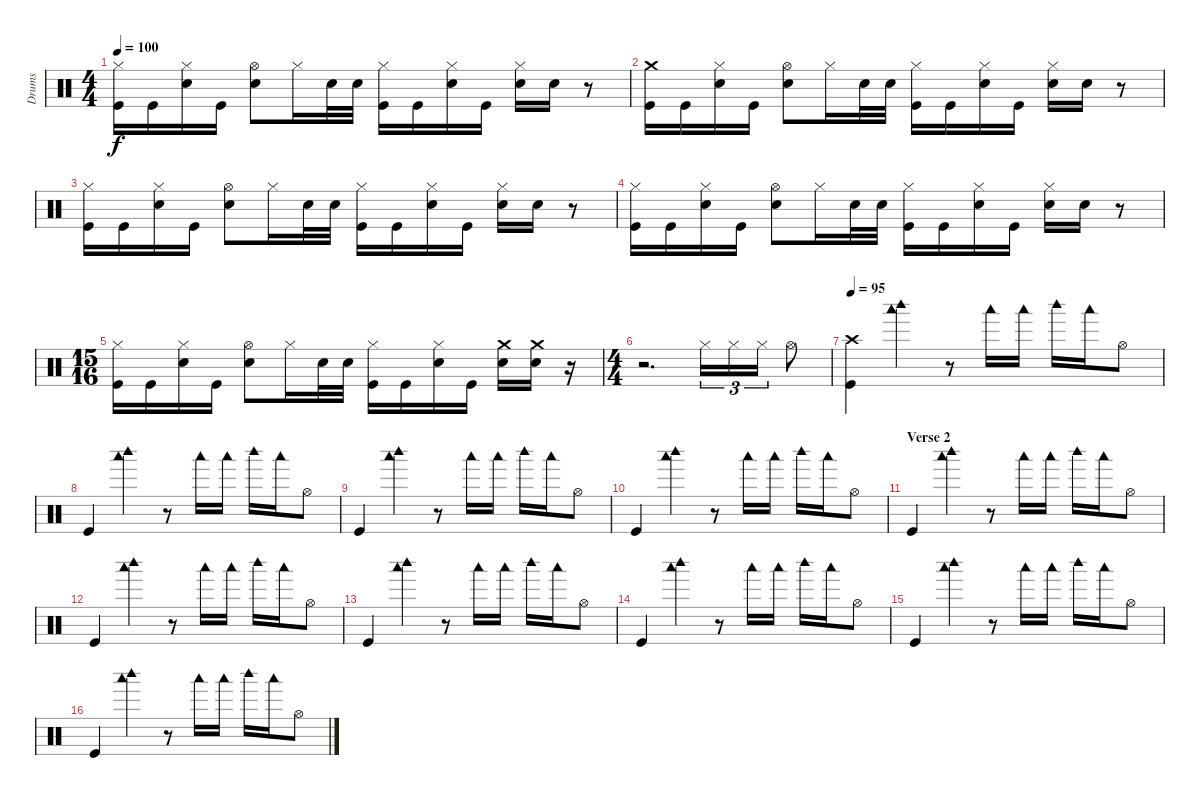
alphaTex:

\track ("Drums" "Drums") {instrument percussion}
\staff {score}
\articulation defaults
\ts (4 4)
\tempo 100
\clef neutral
\ks c
("Hi-Hat (closed)" "Kick (hit)").16{dy f} "Kick (hit)".16 ("Hi-Hat (closed)" "Electric Snare (hit)").16 "Kick (hit)".16 ("Hi-Hat (open)" "Electric Snare (hit)").8 "Hi-Hat (closed)".16 "Electric Snare (hit)".32 "Electric Snare (hit)".32 ("Hi-Hat (closed)" "Kick (hit)").16 "Kick (hit)".16 ("Hi-Hat (closed)" "Electric Snare (hit)").16 "Kick (hit)".16 ("Hi-Hat (closed)" "Electric Snare (hit)").16 "Electric Snare (hit)".16 r.8 |
("Crash medium (hit)" "Kick (hit)").16 "Kick (hit)".16 ("Hi-Hat (closed)" "Electric Snare (hit)").16 "Kick (hit)".16 ("Hi-Hat (open)" "Electric Snare (hit)").8 "Hi-Hat (closed)".16 "Electric Snare (hit)".32 "Electric Snare (hit)".32 ("Hi-Hat (closed)" "Kick (hit)").16 "Kick (hit)".16 ("Hi-Hat (closed)" "Electric Snare (hit)").16 "Kick (hit)".16 ("Hi-Hat (closed)" "Electric Snare (hit)").16 "Electric Snare (hit)".16 r.8 |
("Hi-Hat (closed)" "Kick (hit)").16 "Kick (hit)".16 ("Hi-Hat (closed)" "Electric Snare (hit)").16 "Kick (hit)".16 ("Hi-Hat (open)" "Electric Snare (hit)").8 "Hi-Hat (closed)".16 "Electric Snare (hit)".32 "Electric Snare (hit)".32 ("Hi-Hat (closed)" "Kick (hit)").16 "Kick (hit)".16 ("Hi-Hat (closed)" "Electric Snare (hit)").16 "Kick (hit)".16 ("Hi-Hat (closed)" "Electric Snare (hit)").16 "Electric Snare (hit)".16 r.8 |
("Hi-Hat (closed)" "Kick (hit)").16 "Kick (hit)".16 ("Hi-Hat (closed)" "Electric Snare (hit)").16 "Kick (hit)".16 ("Hi-Hat (open)" "Electric Snare (hit)").8 "Hi-Hat (closed)".16 "Electric Snare (hit)".32 "Electric Snare (hit)".32 ("Hi-Hat (closed)" "Kick (hit)").16 "Kick (hit)".16 ("Hi-Hat (closed)" "Electric Snare (hit)").16 "Kick (hit)".16 ("Hi-Hat (closed)" "Electric Snare (hit)").16 "Electric Snare (hit)".16 r.8 |
\ts (15 16)
("Hi-Hat (closed)" "Kick (hit)").16 "Kick (hit)".16 ("Hi-Hat (closed)" "Electric Snare (hit)").16 "Kick (hit)".16 ("Hi-Hat (open)" "Electric Snare (hit)").8 "Hi-Hat (closed)".16 "Electric Snare (hit)".32 "Electric Snare (hit)".32 ("Hi-Hat (closed)" "Kick (hit)").16 "Kick (hit)".16 ("Hi-Hat (closed)" "Electric Snare (hit)").16 "Kick (hit)".16 ("Crash medium (hit)" "Electric Snare (hit)").16 ("Crash medium (hit)" "Electric Snare (hit)").16 r.16 |
\ts (4 4)
r.2{d} "Hi-Hat (closed)".16{tu (3 2)} "Hi-Hat (closed)".16{tu (3 2)} "Hi-Hat (closed)".16{tu (3 2)} "Hi-Hat (open)".8 |
\tempo 95
("Crash high (hit)" "Kick (hit)").4 ("Woodblock high (hit)" "Woodblock low (hit)").4 r.8 "Woodblock low (hit)".16 "Woodblock low (hit)".16 "Woodblock high (hit)".16 "Woodblock low (hit)".16 "Hi-Hat (open)".8 |
"Kick (hit)".4 ("Woodblock high (hit)" "Woodblock low (hit)").4 r.8 "Woodblock low (hit)".16 "Woodblock low (hit)".16 "Woodblock high (hit)".16 "Woodblock low (hit)".16 "Hi-Hat (open)".8 |
"Kick (hit)".4 ("Woodblock high (hit)" "Woodblock low (hit)").4 r.8 "Woodblock low (hit)".16 "Woodblock low (hit)".16 "Woodblock high (hit)".16 "Woodblock low (hit)".16 "Hi-Hat (open)".8 |
"Kick (hit)".4 ("Woodblock high (hit)" "Woodblock low (hit)").4 r.8 "Woodblock low (hit)".16 "Woodblock low (hit)".16 "Woodblock high (hit)".16 "Woodblock low (hit)".16 "Hi-Hat (open)".8 |
\section ("" "Verse 2")
"Kick (hit)".4 ("Woodblock high (hit)" "Woodblock low (hit)").4 r.8 "Woodblock low (hit)".16 "Woodblock low (hit)".16 "Woodblock high (hit)".16 "Woodblock low (hit)".16 "Hi-Hat (open)".8 |
"Kick (hit)".4 ("Woodblock high (hit)" "Woodblock low (hit)").4 r.8 "Woodblock low (hit)".16 "Woodblock low (hit)".16 "Woodblock high (hit)".16 "Woodblock low (hit)".16 "Hi-Hat (open)".8 |
"Kick (hit)".4 ("Woodblock high (hit)" "Woodblock low (hit)").4 r.8 "Woodblock low (hit)".16 "Woodblock low (hit)".16 "Woodblock high (hit)".16 "Woodblock low (hit)".16 "Hi-Hat (open)".8 |
"Kick (hit)".4 ("Woodblock high (hit)" "Woodblock low (hit)").4 r.8 "Woodblock low (hit)".16 "Woodblock low (hit)".16 "Woodblock high (hit)".16 "Woodblock low (hit)".16 "Hi-Hat (open)".8 |
"Kick (hit)".4 ("Woodblock high (hit)" "Woodblock low (hit)").4 r.8 "Woodblock low (hit)".16 "Woodblock low (hit)".16 "Woodblock high (hit)".16 "Woodblock low (hit)".16 "Hi-Hat (open)".8 |
"Kick (hit)".4 ("Woodblock high (hit)" "Woodblock low (hit)").4 r.8 "Woodblock low (hit)".16 "Woodblock low (hit)".16 "Woodblock high (hit)".16 "Woodblock low (hit)".16 "Hi-Hat (open)".8
